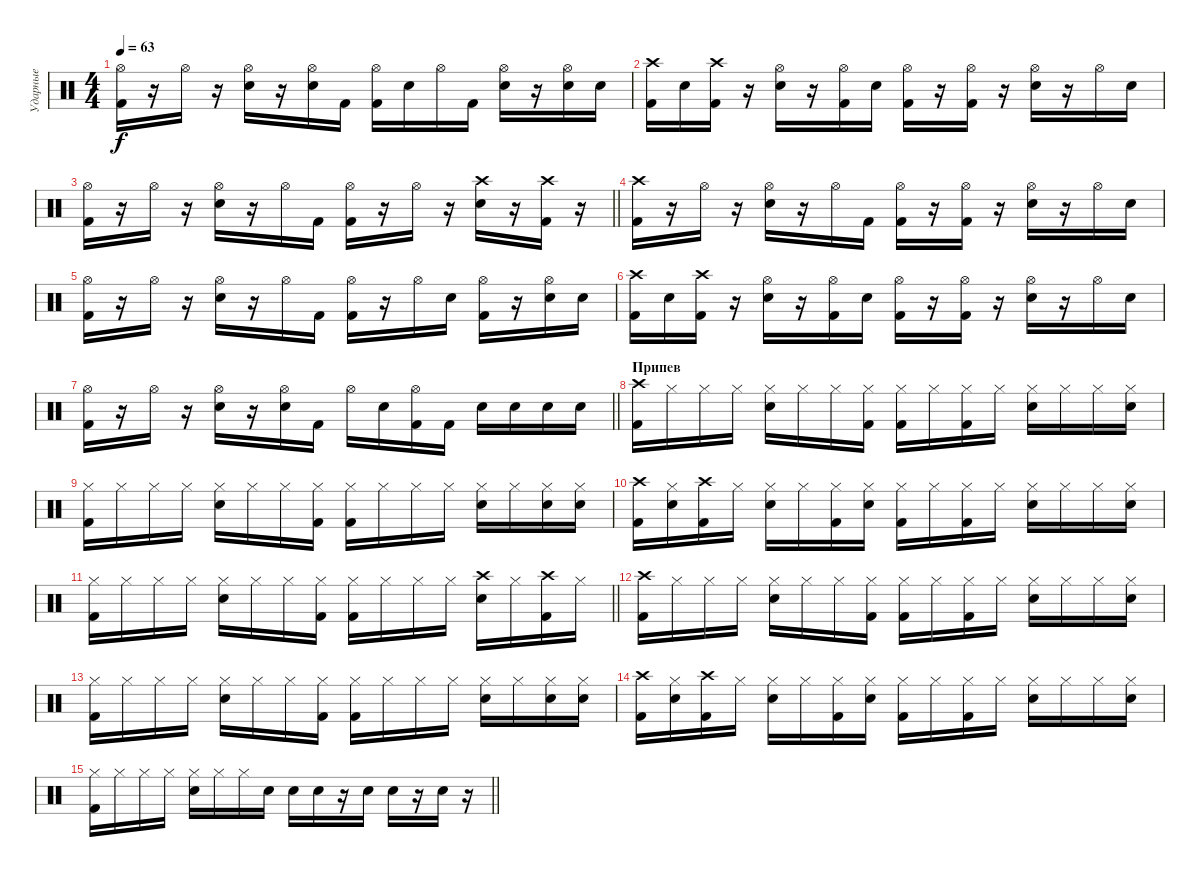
\track ("Ударные" "Ударные") {instrument percussion}
\staff {score}
\articulation defaults
\ts (4 4)
\tempo 63
\clef neutral
\ks c
("Hi-Hat (open)" "Kick (hit) 2").16{dy f} r.16 "Hi-Hat (open)".16 r.16 ("Hi-Hat (open)" "Electric Snare (hit)").16 r.16 ("Hi-Hat (open)" "Electric Snare (hit)").16 "Kick (hit) 2".16 ("Hi-Hat (open)" "Kick (hit) 2").16 "Electric Snare (hit)".16 "Hi-Hat (open)".16 "Kick (hit) 2".16 ("Hi-Hat (open)" "Electric Snare (hit)").16 r.16 ("Hi-Hat (open)" "Electric Snare (hit)").16 "Electric Snare (hit)".16 |
("Crash high (hit)" "Kick (hit) 2").16 "Electric Snare (hit)".16 ("Crash high (hit)" "Kick (hit) 2").16 r.16 ("Hi-Hat (open)" "Electric Snare (hit)").16 r.16 ("Hi-Hat (open)" "Kick (hit) 2").16 "Electric Snare (hit)".16 ("Hi-Hat (open)" "Kick (hit) 2").16 r.16 ("Hi-Hat (open)" "Kick (hit) 2").16 r.16 ("Hi-Hat (open)" "Electric Snare (hit)").16 r.16 "Hi-Hat (open)".16 "Electric Snare (hit)".16 |
\barLineRight lightlight
("Hi-Hat (open)" "Kick (hit) 2").16 r.16 "Hi-Hat (open)".16 r.16 ("Hi-Hat (open)" "Electric Snare (hit)").16 r.16 "Hi-Hat (open)".16 "Kick (hit) 2".16 ("Hi-Hat (open)" "Kick (hit) 2").16 r.16 "Hi-Hat (open)".16 r.16 ("Crash high (hit)" "Electric Snare (hit)").16 r.16 ("Crash high (hit)" "Kick (hit) 2").16 r.16 |
("Crash high (hit)" "Kick (hit) 2").16 r.16 "Hi-Hat (open)".16 r.16 ("Hi-Hat (open)" "Electric Snare (hit)").16 r.16 "Hi-Hat (open)".16 "Kick (hit) 2".16 ("Hi-Hat (open)" "Kick (hit) 2").16 r.16 ("Hi-Hat (open)" "Kick (hit) 2").16 r.16 ("Hi-Hat (open)" "Electric Snare (hit)").16 r.16 "Hi-Hat (open)".16 "Electric Snare (hit)".16 |
("Hi-Hat (open)" "Kick (hit) 2").16 r.16 "Hi-Hat (open)".16 r.16 ("Hi-Hat (open)" "Electric Snare (hit)").16 r.16 "Hi-Hat (open)".16 "Kick (hit) 2".16 ("Hi-Hat (open)" "Kick (hit) 2").16 r.16 "Hi-Hat (open)".16 "Electric Snare (hit)".16 ("Hi-Hat (open)" "Kick (hit) 2").16 r.16 ("Hi-Hat (open)" "Electric Snare (hit)").16 "Electric Snare (hit)".16 |
("Crash high (hit)" "Kick (hit) 2").16 "Electric Snare (hit)".16 ("Crash high (hit)" "Kick (hit) 2").16 r.16 ("Hi-Hat (open)" "Electric Snare (hit)").16 r.16 ("Hi-Hat (open)" "Kick (hit) 2").16 "Electric Snare (hit)".16 ("Hi-Hat (open)" "Kick (hit) 2").16 r.16 ("Hi-Hat (open)" "Kick (hit) 2").16 r.16 ("Hi-Hat (open)" "Electric Snare (hit)").16 r.16 "Hi-Hat (open)".16 "Electric Snare (hit)".16 |
\barLineRight lightlight
("Hi-Hat (open)" "Kick (hit) 2").16 r.16 "Hi-Hat (open)".16 r.16 ("Hi-Hat (open)" "Electric Snare (hit)").16 r.16 ("Hi-Hat (open)" "Electric Snare (hit)").16 "Kick (hit) 2".16 "Hi-Hat (open)".16 "Electric Snare (hit)".16 ("Hi-Hat (open)" "Kick (hit) 2").16 "Kick (hit) 2".16 "Electric Snare (hit)".16 "Electric Snare (hit)".16 "Electric Snare (hit)".16 "Electric Snare (hit)".16 |
\section ("" "Припев")
("Crash high (hit)" "Kick (hit) 2").16 "Hi-Hat (closed)".16 "Hi-Hat (closed)".16 "Hi-Hat (closed)".16 ("Hi-Hat (closed)" "Electric Snare (hit)").16 "Hi-Hat (closed)".16 "Hi-Hat (closed)".16 ("Hi-Hat (closed)" "Kick (hit) 2").16 ("Hi-Hat (closed)" "Kick (hit) 2").16 "Hi-Hat (closed)".16 ("Hi-Hat (closed)" "Kick (hit) 2").16 "Hi-Hat (closed)".16 ("Hi-Hat (closed)" "Electric Snare (hit)").16 "Hi-Hat (closed)".16 "Hi-Hat (closed)".16 ("Hi-Hat (closed)" "Electric Snare (hit)").16 |
("Hi-Hat (closed)" "Kick (hit) 2").16 "Hi-Hat (closed)".16 "Hi-Hat (closed)".16 "Hi-Hat (closed)".16 ("Hi-Hat (closed)" "Electric Snare (hit)").16 "Hi-Hat (closed)".16 "Hi-Hat (closed)".16 ("Hi-Hat (closed)" "Kick (hit) 2").16 ("Hi-Hat (closed)" "Kick (hit) 2").16 "Hi-Hat (closed)".16 "Hi-Hat (closed)".16 "Hi-Hat (closed)".16 ("Hi-Hat (closed)" "Electric Snare (hit)").16 "Hi-Hat (closed)".16 ("Hi-Hat (closed)" "Electric Snare (hit)").16 ("Hi-Hat (closed)" "Electric Snare (hit)").16 |
("Crash high (hit)" "Kick (hit) 2").16 ("Hi-Hat (closed)" "Electric Snare (hit)").16 ("Crash high (hit)" "Kick (hit) 2").16 "Hi-Hat (closed)".16 ("Hi-Hat (closed)" "Electric Snare (hit)").16 "Hi-Hat (closed)".16 ("Hi-Hat (closed)" "Kick (hit) 2").16 ("Hi-Hat (closed)" "Electric Snare (hit)").16 ("Hi-Hat (closed)" "Kick (hit) 2").16 "Hi-Hat (closed)".16 ("Hi-Hat (closed)" "Kick (hit) 2").16 "Hi-Hat (closed)".16 ("Hi-Hat (closed)" "Electric Snare (hit)").16 "Hi-Hat (closed)".16 "Hi-Hat (closed)".16 ("Hi-Hat (closed)" "Electric Snare (hit)").16 |
\barLineRight lightlight
("Hi-Hat (closed)" "Kick (hit) 2").16 "Hi-Hat (closed)".16 "Hi-Hat (closed)".16 "Hi-Hat (closed)".16 ("Hi-Hat (closed)" "Electric Snare (hit)").16 "Hi-Hat (closed)".16 "Hi-Hat (closed)".16 ("Hi-Hat (closed)" "Kick (hit) 2").16 ("Hi-Hat (closed)" "Kick (hit) 2").16 "Hi-Hat (closed)".16 "Hi-Hat (closed)".16 "Hi-Hat (closed)".16 ("Crash high (hit)" "Electric Snare (hit)").16 "Hi-Hat (closed)".16 ("Crash high (hit)" "Kick (hit) 2").16 "Hi-Hat (closed)".16 |
("Crash high (hit)" "Kick (hit) 2").16 "Hi-Hat (closed)".16 "Hi-Hat (closed)".16 "Hi-Hat (closed)".16 ("Hi-Hat (closed)" "Electric Snare (hit)").16 "Hi-Hat (closed)".16 "Hi-Hat (closed)".16 ("Hi-Hat (closed)" "Kick (hit) 2").16 ("Hi-Hat (closed)" "Kick (hit) 2").16 "Hi-Hat (closed)".16 ("Hi-Hat (closed)" "Kick (hit) 2").16 "Hi-Hat (closed)".16 ("Hi-Hat (closed)" "Electric Snare (hit)").16 "Hi-Hat (closed)".16 "Hi-Hat (closed)".16 ("Hi-Hat (closed)" "Electric Snare (hit)").16 |
("Hi-Hat (closed)" "Kick (hit) 2").16 "Hi-Hat (closed)".16 "Hi-Hat (closed)".16 "Hi-Hat (closed)".16 ("Hi-Hat (closed)" "Electric Snare (hit)").16 "Hi-Hat (closed)".16 "Hi-Hat (closed)".16 ("Hi-Hat (closed)" "Kick (hit) 2").16 ("Hi-Hat (closed)" "Kick (hit) 2").16 "Hi-Hat (closed)".16 "Hi-Hat (closed)".16 "Hi-Hat (closed)".16 ("Hi-Hat (closed)" "Electric Snare (hit)").16 "Hi-Hat (closed)".16 ("Hi-Hat (closed)" "Electric Snare (hit)").16 ("Hi-Hat (closed)" "Electric Snare (hit)").16 |
("Crash high (hit)" "Kick (hit) 2").16 ("Hi-Hat (closed)" "Electric Snare (hit)").16 ("Crash high (hit)" "Kick (hit) 2").16 "Hi-Hat (closed)".16 ("Hi-Hat (closed)" "Electric Snare (hit)").16 "Hi-Hat (closed)".16 ("Hi-Hat (closed)" "Kick (hit) 2").16 ("Hi-Hat (closed)" "Electric Snare (hit)").16 ("Hi-Hat (closed)" "Kick (hit) 2").16 "Hi-Hat (closed)".16 ("Hi-Hat (closed)" "Kick (hit) 2").16 "Hi-Hat (closed)".16 ("Hi-Hat (closed)" "Electric Snare (hit)").16 "Hi-Hat (closed)".16 "Hi-Hat (closed)".16 ("Hi-Hat (closed)" "Electric Snare (hit)").16 |
\barLineRight lightlight
("Hi-Hat (closed)" "Kick (hit) 2").16 "Hi-Hat (closed)".16 "Hi-Hat (closed)".16 "Hi-Hat (closed)".16 ("Hi-Hat (closed)" "Electric Snare (hit)").16 "Hi-Hat (closed)".16 "Hi-Hat (closed)".16 "Electric Snare (hit)".16 "Electric Snare (hit)".16 "Electric Snare (hit)".16 r.16 "Electric Snare (hit)".16 "Electric Snare (hit)".16 r.16 "Electric Snare (hit)".16 r.16
